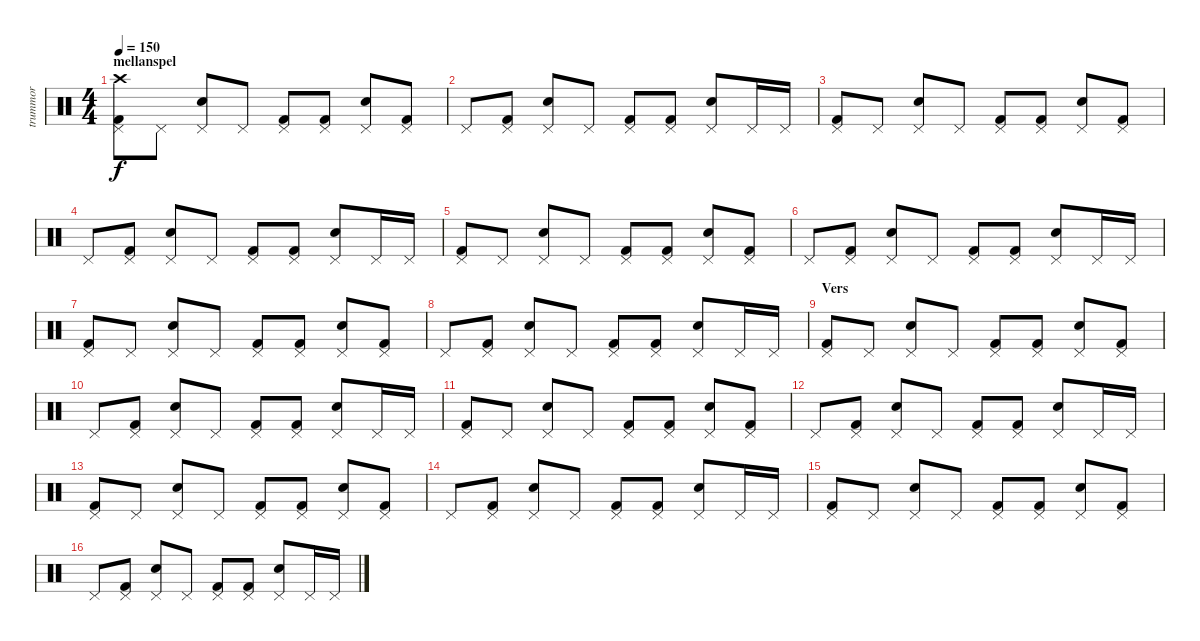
\track ("trummor" "trummor") {instrument percussion}
\staff {score}
\articulation defaults
\ts (4 4)
\section ("" "mellanspel")
\tempo 150
\clef neutral
\ks c
("Crash high (hit)" "Pedal Hi-Hat (hit)" "Kick (hit) 2").8{dy f} "Pedal Hi-Hat (hit)".8 ("Pedal Hi-Hat (hit)" "Snare (hit) 2").8 "Pedal Hi-Hat (hit)".8 ("Pedal Hi-Hat (hit)" "Kick (hit) 2").8 ("Pedal Hi-Hat (hit)" "Kick (hit) 2").8 ("Pedal Hi-Hat (hit)" "Snare (hit) 2").8 ("Pedal Hi-Hat (hit)" "Kick (hit) 2").8 |
"Pedal Hi-Hat (hit)".8 ("Pedal Hi-Hat (hit)" "Kick (hit) 2").8 ("Pedal Hi-Hat (hit)" "Snare (hit) 2").8 "Pedal Hi-Hat (hit)".8 ("Pedal Hi-Hat (hit)" "Kick (hit) 2").8 ("Pedal Hi-Hat (hit)" "Kick (hit) 2").8 ("Pedal Hi-Hat (hit)" "Snare (hit) 2").8 "Pedal Hi-Hat (hit)".16 "Pedal Hi-Hat (hit)".16 |
("Pedal Hi-Hat (hit)" "Kick (hit) 2").8 "Pedal Hi-Hat (hit)".8 ("Pedal Hi-Hat (hit)" "Snare (hit) 2").8 "Pedal Hi-Hat (hit)".8 ("Pedal Hi-Hat (hit)" "Kick (hit) 2").8 ("Pedal Hi-Hat (hit)" "Kick (hit) 2").8 ("Pedal Hi-Hat (hit)" "Snare (hit) 2").8 ("Pedal Hi-Hat (hit)" "Kick (hit) 2").8 |
"Pedal Hi-Hat (hit)".8 ("Pedal Hi-Hat (hit)" "Kick (hit) 2").8 ("Pedal Hi-Hat (hit)" "Snare (hit) 2").8 "Pedal Hi-Hat (hit)".8 ("Pedal Hi-Hat (hit)" "Kick (hit) 2").8 ("Pedal Hi-Hat (hit)" "Kick (hit) 2").8 ("Pedal Hi-Hat (hit)" "Snare (hit) 2").8 "Pedal Hi-Hat (hit)".16 "Pedal Hi-Hat (hit)".16 |
("Pedal Hi-Hat (hit)" "Kick (hit) 2").8 "Pedal Hi-Hat (hit)".8 ("Pedal Hi-Hat (hit)" "Snare (hit) 2").8 "Pedal Hi-Hat (hit)".8 ("Pedal Hi-Hat (hit)" "Kick (hit) 2").8 ("Pedal Hi-Hat (hit)" "Kick (hit) 2").8 ("Pedal Hi-Hat (hit)" "Snare (hit) 2").8 ("Pedal Hi-Hat (hit)" "Kick (hit) 2").8 |
"Pedal Hi-Hat (hit)".8 ("Pedal Hi-Hat (hit)" "Kick (hit) 2").8 ("Pedal Hi-Hat (hit)" "Snare (hit) 2").8 "Pedal Hi-Hat (hit)".8 ("Pedal Hi-Hat (hit)" "Kick (hit) 2").8 ("Pedal Hi-Hat (hit)" "Kick (hit) 2").8 ("Pedal Hi-Hat (hit)" "Snare (hit) 2").8 "Pedal Hi-Hat (hit)".16 "Pedal Hi-Hat (hit)".16 |
("Pedal Hi-Hat (hit)" "Kick (hit) 2").8 "Pedal Hi-Hat (hit)".8 ("Pedal Hi-Hat (hit)" "Snare (hit) 2").8 "Pedal Hi-Hat (hit)".8 ("Pedal Hi-Hat (hit)" "Kick (hit) 2").8 ("Pedal Hi-Hat (hit)" "Kick (hit) 2").8 ("Pedal Hi-Hat (hit)" "Snare (hit) 2").8 ("Pedal Hi-Hat (hit)" "Kick (hit) 2").8 |
"Pedal Hi-Hat (hit)".8 ("Pedal Hi-Hat (hit)" "Kick (hit) 2").8 ("Pedal Hi-Hat (hit)" "Snare (hit) 2").8 "Pedal Hi-Hat (hit)".8 ("Pedal Hi-Hat (hit)" "Kick (hit) 2").8 ("Pedal Hi-Hat (hit)" "Kick (hit) 2").8 ("Pedal Hi-Hat (hit)" "Snare (hit) 2").8 "Pedal Hi-Hat (hit)".16 "Pedal Hi-Hat (hit)".16 |
\section ("" "Vers")
("Pedal Hi-Hat (hit)" "Kick (hit) 2").8 "Pedal Hi-Hat (hit)".8 ("Pedal Hi-Hat (hit)" "Snare (hit) 2").8 "Pedal Hi-Hat (hit)".8 ("Pedal Hi-Hat (hit)" "Kick (hit) 2").8 ("Pedal Hi-Hat (hit)" "Kick (hit) 2").8 ("Pedal Hi-Hat (hit)" "Snare (hit) 2").8 ("Pedal Hi-Hat (hit)" "Kick (hit) 2").8 |
"Pedal Hi-Hat (hit)".8 ("Pedal Hi-Hat (hit)" "Kick (hit) 2").8 ("Pedal Hi-Hat (hit)" "Snare (hit) 2").8 "Pedal Hi-Hat (hit)".8 ("Pedal Hi-Hat (hit)" "Kick (hit) 2").8 ("Pedal Hi-Hat (hit)" "Kick (hit) 2").8 ("Pedal Hi-Hat (hit)" "Snare (hit) 2").8 "Pedal Hi-Hat (hit)".16 "Pedal Hi-Hat (hit)".16 |
("Pedal Hi-Hat (hit)" "Kick (hit) 2").8 "Pedal Hi-Hat (hit)".8 ("Pedal Hi-Hat (hit)" "Snare (hit) 2").8 "Pedal Hi-Hat (hit)".8 ("Pedal Hi-Hat (hit)" "Kick (hit) 2").8 ("Pedal Hi-Hat (hit)" "Kick (hit) 2").8 ("Pedal Hi-Hat (hit)" "Snare (hit) 2").8 ("Pedal Hi-Hat (hit)" "Kick (hit) 2").8 |
"Pedal Hi-Hat (hit)".8 ("Pedal Hi-Hat (hit)" "Kick (hit) 2").8 ("Pedal Hi-Hat (hit)" "Snare (hit) 2").8 "Pedal Hi-Hat (hit)".8 ("Pedal Hi-Hat (hit)" "Kick (hit) 2").8 ("Pedal Hi-Hat (hit)" "Kick (hit) 2").8 ("Pedal Hi-Hat (hit)" "Snare (hit) 2").8 "Pedal Hi-Hat (hit)".16 "Pedal Hi-Hat (hit)".16 |
("Pedal Hi-Hat (hit)" "Kick (hit) 2").8 "Pedal Hi-Hat (hit)".8 ("Pedal Hi-Hat (hit)" "Snare (hit) 2").8 "Pedal Hi-Hat (hit)".8 ("Pedal Hi-Hat (hit)" "Kick (hit) 2").8 ("Pedal Hi-Hat (hit)" "Kick (hit) 2").8 ("Pedal Hi-Hat (hit)" "Snare (hit) 2").8 ("Pedal Hi-Hat (hit)" "Kick (hit) 2").8 |
"Pedal Hi-Hat (hit)".8 ("Pedal Hi-Hat (hit)" "Kick (hit) 2").8 ("Pedal Hi-Hat (hit)" "Snare (hit) 2").8 "Pedal Hi-Hat (hit)".8 ("Pedal Hi-Hat (hit)" "Kick (hit) 2").8 ("Pedal Hi-Hat (hit)" "Kick (hit) 2").8 ("Pedal Hi-Hat (hit)" "Snare (hit) 2").8 "Pedal Hi-Hat (hit)".16 "Pedal Hi-Hat (hit)".16 |
("Pedal Hi-Hat (hit)" "Kick (hit) 2").8 "Pedal Hi-Hat (hit)".8 ("Pedal Hi-Hat (hit)" "Snare (hit) 2").8 "Pedal Hi-Hat (hit)".8 ("Pedal Hi-Hat (hit)" "Kick (hit) 2").8 ("Pedal Hi-Hat (hit)" "Kick (hit) 2").8 ("Pedal Hi-Hat (hit)" "Snare (hit) 2").8 ("Pedal Hi-Hat (hit)" "Kick (hit) 2").8 |
"Pedal Hi-Hat (hit)".8 ("Pedal Hi-Hat (hit)" "Kick (hit) 2").8 ("Pedal Hi-Hat (hit)" "Snare (hit) 2").8 "Pedal Hi-Hat (hit)".8 ("Pedal Hi-Hat (hit)" "Kick (hit) 2").8 ("Pedal Hi-Hat (hit)" "Kick (hit) 2").8 ("Pedal Hi-Hat (hit)" "Snare (hit) 2").8 "Pedal Hi-Hat (hit)".16 "Pedal Hi-Hat (hit)".16
